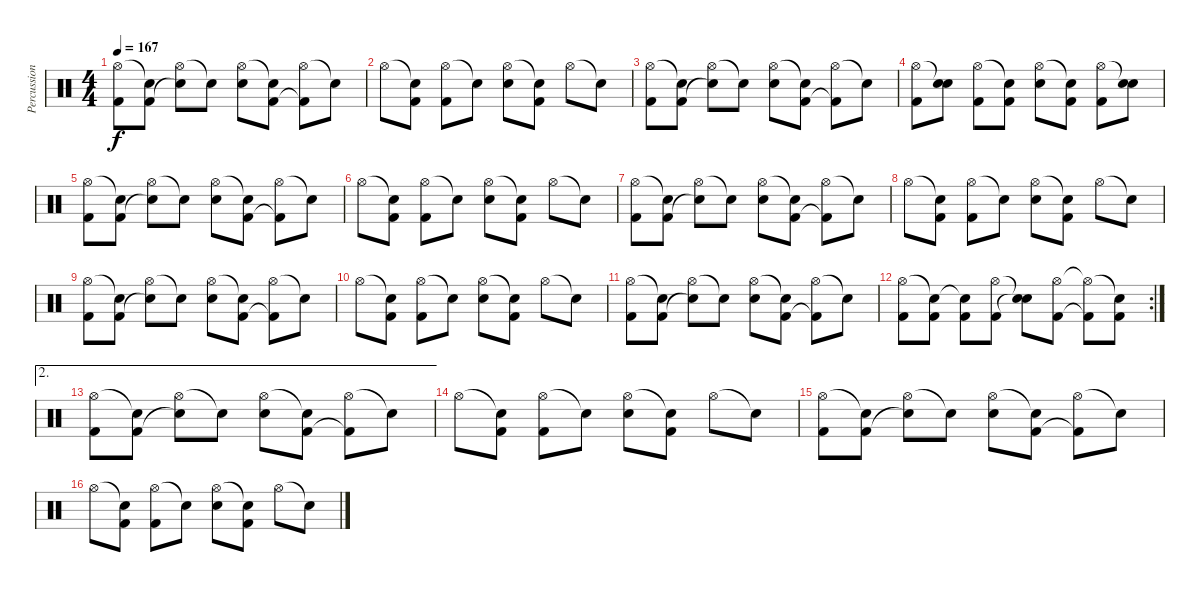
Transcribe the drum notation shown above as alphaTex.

\track ("Percussion" "Percussion") {instrument percussion}
\staff {score}
\articulation defaults
\ts (4 4)
\tempo 167
\clef neutral
\ks c
("Hi-Hat (open)" "Kick (hit) 2").8{dy f} ("Snare (hit)"{t} "Kick (hit) 2").8 ("Hi-Hat (open)" "Snare (hit)"{t}).8 "Snare (hit)"{t}.8 ("Hi-Hat (open)" "Electric Snare (hit)").8 ("Snare (hit)"{t} "Kick (hit) 2").8 ("Hi-Hat (open)" "Kick (hit) 2"{t}).8 "Snare (hit)"{t}.8 |
"Hi-Hat (open)".8 ("Snare (hit)"{t} "Kick (hit) 2").8 ("Hi-Hat (open)" "Kick (hit) 2").8 "Snare (hit)"{t}.8 ("Hi-Hat (open)" "Electric Snare (hit)").8 ("Snare (hit)"{t} "Kick (hit) 2").8 "Hi-Hat (open)".8 "Snare (hit)"{t}.8 |
("Hi-Hat (open)" "Kick (hit) 2").8 ("Snare (hit)"{t} "Kick (hit) 2").8 ("Hi-Hat (open)" "Snare (hit)"{t}).8 "Snare (hit)"{t}.8 ("Hi-Hat (open)" "Electric Snare (hit)").8 ("Snare (hit)"{t} "Kick (hit) 2").8 ("Hi-Hat (open)" "Kick (hit) 2"{t}).8 "Snare (hit)"{t}.8 |
("Hi-Hat (open)" "Kick (hit) 2").8 ("Snare (hit)"{t} "Electric Snare (hit)").8 ("Hi-Hat (open)" "Kick (hit) 2").8 ("Snare (hit)"{t} "Kick (hit) 2").8 ("Hi-Hat (open)" "Electric Snare (hit)").8 ("Snare (hit)"{t} "Kick (hit) 2").8 ("Hi-Hat (open)" "Kick (hit) 2").8 ("Snare (hit)"{t} "Electric Snare (hit)").8 |
("Hi-Hat (open)" "Kick (hit) 2").8 ("Snare (hit)"{t} "Kick (hit) 2").8 ("Hi-Hat (open)" "Snare (hit)"{t}).8 "Snare (hit)"{t}.8 ("Hi-Hat (open)" "Electric Snare (hit)").8 ("Snare (hit)"{t} "Kick (hit) 2").8 ("Hi-Hat (open)" "Kick (hit) 2"{t}).8 "Snare (hit)"{t}.8 |
"Hi-Hat (open)".8 ("Snare (hit)"{t} "Kick (hit) 2").8 ("Hi-Hat (open)" "Kick (hit) 2").8 "Snare (hit)"{t}.8 ("Hi-Hat (open)" "Electric Snare (hit)").8 ("Snare (hit)"{t} "Kick (hit) 2").8 "Hi-Hat (open)".8 "Snare (hit)"{t}.8 |
("Hi-Hat (open)" "Kick (hit) 2").8 ("Snare (hit)"{t} "Kick (hit) 2").8 ("Hi-Hat (open)" "Snare (hit)"{t}).8 "Snare (hit)"{t}.8 ("Hi-Hat (open)" "Electric Snare (hit)").8 ("Snare (hit)"{t} "Kick (hit) 2").8 ("Hi-Hat (open)" "Kick (hit) 2"{t}).8 "Snare (hit)"{t}.8 |
"Hi-Hat (open)".8 ("Snare (hit)"{t} "Kick (hit) 2").8 ("Hi-Hat (open)" "Kick (hit) 2").8 "Snare (hit)"{t}.8 ("Hi-Hat (open)" "Electric Snare (hit)").8 ("Snare (hit)"{t} "Kick (hit) 2").8 "Hi-Hat (open)".8 "Snare (hit)"{t}.8 |
("Hi-Hat (open)" "Kick (hit) 2").8 ("Snare (hit)"{t} "Kick (hit) 2").8 ("Hi-Hat (open)" "Snare (hit)"{t}).8 "Snare (hit)"{t}.8 ("Hi-Hat (open)" "Electric Snare (hit)").8 ("Snare (hit)"{t} "Kick (hit) 2").8 ("Hi-Hat (open)" "Kick (hit) 2"{t}).8 "Snare (hit)"{t}.8 |
"Hi-Hat (open)".8 ("Snare (hit)"{t} "Kick (hit) 2").8 ("Hi-Hat (open)" "Kick (hit) 2").8 "Snare (hit)"{t}.8 ("Hi-Hat (open)" "Electric Snare (hit)").8 ("Snare (hit)"{t} "Kick (hit) 2").8 "Hi-Hat (open)".8 "Snare (hit)"{t}.8 |
("Hi-Hat (open)" "Kick (hit) 2").8 ("Snare (hit)"{t} "Kick (hit) 2").8 ("Hi-Hat (open)" "Snare (hit)"{t}).8 "Snare (hit)"{t}.8 ("Hi-Hat (open)" "Electric Snare (hit)").8 ("Snare (hit)"{t} "Kick (hit) 2").8 ("Hi-Hat (open)" "Kick (hit) 2"{t}).8 "Snare (hit)"{t}.8 |
\rc 2
("Hi-Hat (open)" "Kick (hit) 2").8 ("Snare (hit)"{t} "Kick (hit) 2").8 ("Snare (hit)"{t} "Kick (hit) 2").8 ("Hi-Hat (open)" "Kick (hit) 2").8 ("Snare (hit)"{t} "Snare (hit)"{t}).8 ("Hi-Hat (open)" "Kick (hit) 2").8 ("Hi-Hat (open)"{t} "Kick (hit) 2"{t}).8 ("Snare (hit)"{t} "Kick (hit) 2").8 |
\ae 2
("Hi-Hat (open)" "Kick (hit) 2").8 ("Snare (hit)"{t} "Kick (hit) 2").8 ("Hi-Hat (open)" "Snare (hit)"{t}).8 "Snare (hit)"{t}.8 ("Hi-Hat (open)" "Electric Snare (hit)").8 ("Snare (hit)"{t} "Kick (hit) 2").8 ("Hi-Hat (open)" "Kick (hit) 2"{t}).8 "Snare (hit)"{t}.8 |
"Hi-Hat (open)".8 ("Snare (hit)"{t} "Kick (hit) 2").8 ("Hi-Hat (open)" "Kick (hit) 2").8 "Snare (hit)"{t}.8 ("Hi-Hat (open)" "Electric Snare (hit)").8 ("Snare (hit)"{t} "Kick (hit) 2").8 "Hi-Hat (open)".8 "Snare (hit)"{t}.8 |
("Hi-Hat (open)" "Kick (hit) 2").8 ("Snare (hit)"{t} "Kick (hit) 2").8 ("Hi-Hat (open)" "Snare (hit)"{t}).8 "Snare (hit)"{t}.8 ("Hi-Hat (open)" "Electric Snare (hit)").8 ("Snare (hit)"{t} "Kick (hit) 2").8 ("Hi-Hat (open)" "Kick (hit) 2"{t}).8 "Snare (hit)"{t}.8 |
"Hi-Hat (open)".8 ("Snare (hit)"{t} "Kick (hit) 2").8 ("Hi-Hat (open)" "Kick (hit) 2").8 "Snare (hit)"{t}.8 ("Hi-Hat (open)" "Electric Snare (hit)").8 ("Snare (hit)"{t} "Kick (hit) 2").8 "Hi-Hat (open)".8 "Snare (hit)"{t}.8
